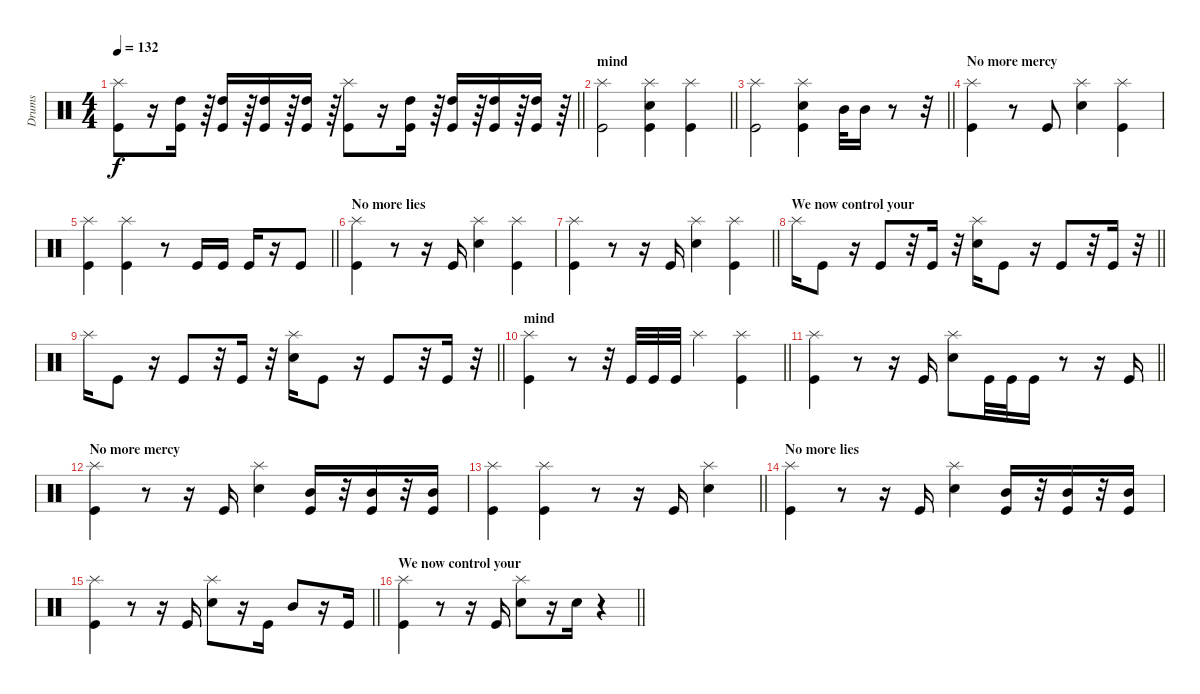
\track ("Drums" "Drums") {instrument percussion}
\staff {score}
\articulation defaults
\ts (4 4)
\tempo 132
\clef neutral
\barLineRight lightlight
\ks c
("Splash (hit)" "Kick (hit)").8{dy f} r.16 ("High Tom (hit)" "Kick (hit)").16 r.64 ("High Tom (hit)" "Kick (hit)").16 r.64 ("High Tom (hit)" "Kick (hit)").16 r.64 ("High Tom (hit)" "Kick (hit)").16 r.64 ("Splash (hit)" "Kick (hit)").8 r.16 ("High Tom (hit)" "Kick (hit)").16 r.64 ("High Tom (hit)" "Kick (hit)").16 r.64 ("High Tom (hit)" "Kick (hit)").16 r.64 ("High Tom (hit)" "Kick (hit)").16 r.64 |
\section ("" "mind")
\barLineRight lightlight
("Splash (hit)" "Kick (hit)").2 ("Splash (hit)" "Snare (hit) 2" "Kick (hit)").4 ("Splash (hit)" "Kick (hit)").4 |
\section ("" "")
\barLineRight lightlight
("Splash (hit)" "Kick (hit)").2 ("Splash (hit)" "Snare (hit) 2" "Kick (hit)").4 "Mid Tom (hit)".32 "Mid Tom (hit)".16 r.8 r.32 |
\section ("" "No more mercy")
("Splash (hit)" "Kick (hit)").4 r.8 "Kick (hit)".8 ("Splash (hit)" "Snare (hit) 2").4 ("Splash (hit)" "Kick (hit)").4 |
\barLineRight lightlight
("Splash (hit)" "Kick (hit)").4 ("Splash (hit)" "Kick (hit)").4 r.8 "Kick (hit)".16 "Kick (hit)".16 "Kick (hit)".16 r.16 "Kick (hit)".8 |
\section ("" "No more lies")
("Splash (hit)" "Kick (hit)").4 r.8 r.16 "Kick (hit)".16 ("Splash (hit)" "Snare (hit) 2").4 ("Splash (hit)" "Kick (hit)").4 |
\barLineRight lightlight
("Splash (hit)" "Kick (hit)").4 r.8 r.16 "Kick (hit)".16 ("Splash (hit)" "Snare (hit) 2").4 ("Splash (hit)" "Kick (hit)").4 |
\section ("" "We now control your")
\barLineRight lightlight "Splash (hit)".16 "Kick (hit)".8
r.16 "Kick (hit)".8 r.32 "Kick (hit)".16 r.32 ("Splash (hit)" "Snare (hit) 2").16 "Kick (hit)".8 r.16 "Kick (hit)".8 r.32 "Kick (hit)".16 r.32 |
\barLineRight lightlight "Splash (hit)".16 "Kick (hit)".8
r.16 "Kick (hit)".8 r.32 "Kick (hit)".16 r.32 ("Splash (hit)" "Snare (hit) 2").16 "Kick (hit)".8 r.16 "Kick (hit)".8 r.32 "Kick (hit)".16 r.32 |
\section ("" "mind")
\barLineRight lightlight
("Splash (hit)" "Kick (hit)").4 r.8 r.32 "Kick (hit)".32 "Kick (hit)".32 "Kick (hit)".32 "Splash (hit)".4 ("Splash (hit)" "Kick (hit)").4 |
\section ("" "")
\barLineRight lightlight
("Splash (hit)" "Kick (hit)").4 r.8 r.16 "Kick (hit)".16 ("Splash (hit)" "Snare (hit) 2").8 "Kick (hit)".32 "Kick (hit)".32 "Kick (hit)".16 r.8 r.16 "Kick (hit)".16 |
\section ("" "No more mercy")
("Splash (hit)" "Kick (hit)").4 r.8 r.16 "Kick (hit)".16 ("Splash (hit)" "Snare (hit) 2").4 ("Mid Tom (hit)" "Kick (hit)").16 r.32 ("Mid Tom (hit)" "Kick (hit)").16 r.32 ("Mid Tom (hit)" "Kick (hit)").16 |
\barLineRight lightlight
("Splash (hit)" "Kick (hit)").4 ("Splash (hit)" "Kick (hit)").4 r.8 r.16 "Kick (hit)".16 ("Splash (hit)" "Snare (hit) 2").4 |
\section ("" "No more lies")
("Splash (hit)" "Kick (hit)").4 r.8 r.16 "Kick (hit)".16 ("Splash (hit)" "Snare (hit) 2").4 ("Mid Tom (hit)" "Kick (hit)").16 r.32 ("Mid Tom (hit)" "Kick (hit)").16 r.32 ("Mid Tom (hit)" "Kick (hit)").16 |
\barLineRight lightlight
("Splash (hit)" "Kick (hit)").4 r.8 r.16 "Kick (hit)".16 ("Splash (hit)" "Snare (hit) 2").8 r.16 "Kick (hit)".16 "Mid Tom (hit)".8 r.16 "Kick (hit)".16 |
\section ("" "We now control your")
\barLineRight lightlight
("Splash (hit)" "Kick (hit)").4{volume 0} r.8 r.16 "Kick (hit)".16 ("Splash (hit)" "Snare (hit) 2").8 r.16 "Snare (hit) 2".16 r.4
